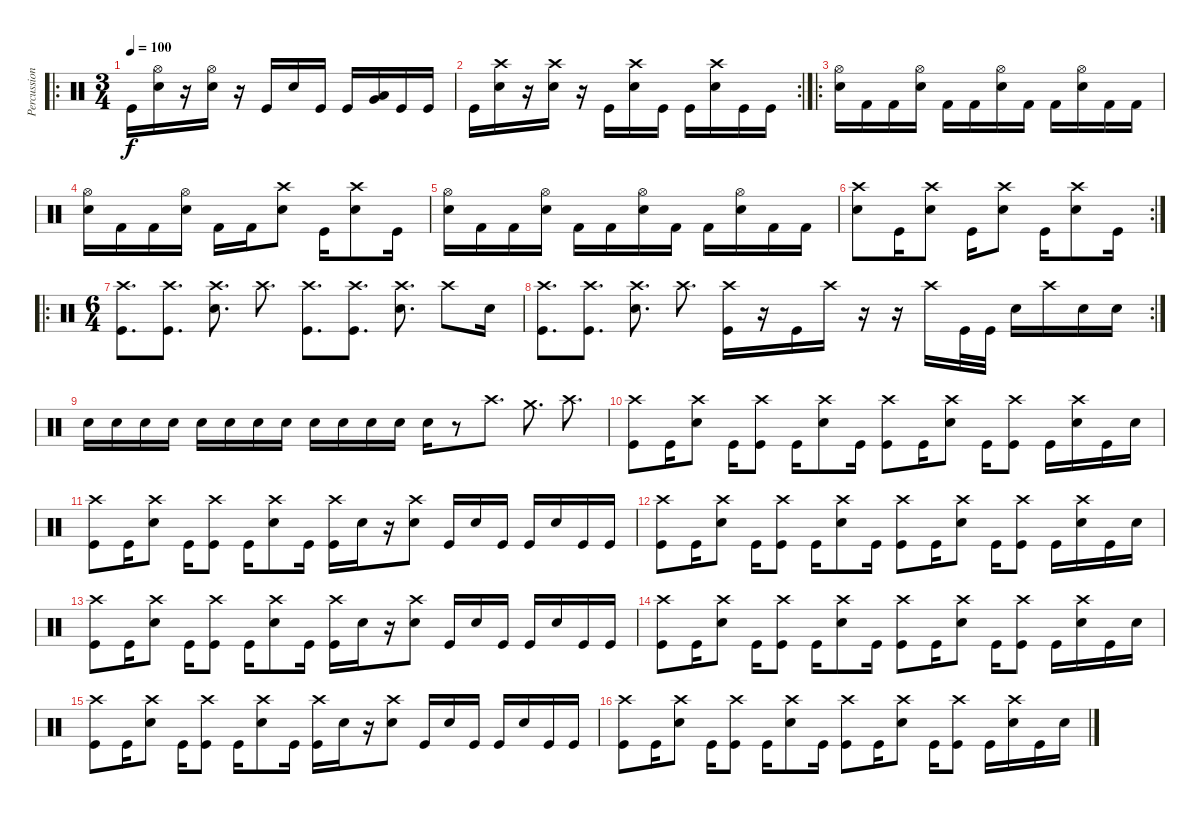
\track ("Percussion" "Percussion") {instrument percussion}
\staff {score}
\articulation defaults
\ro
\ts (3 4)
\tempo 100
\clef neutral
\ks c "Kick (hit)".16{dy f}
("Hi-Hat (open)" "Snare (hit) 2").16 r.16{volume 0} ("Hi-Hat (open)" "Snare (hit) 2").16{volume 12} r.16{volume 0} "Kick (hit)".16{volume 12} "Snare (hit) 2".16 "Kick (hit)".16 "Kick (hit)".16 ("Very Low Tom (hit)" "Low Floor Tom (hit)").16 "Kick (hit)".16 "Kick (hit)".16 |
\rc 2 "Kick (hit)".16
("Crash high (hit)" "Snare (hit) 2").16 r.16 ("Crash high (hit)" "Snare (hit) 2").16 r.16 "Kick (hit)".16 ("Crash high (hit)" "Snare (hit) 2").16 "Kick (hit)".16 "Kick (hit)".16 ("Crash high (hit)" "Snare (hit) 2").16 "Kick (hit)".16 "Kick (hit)".16 |
\ro
("Hi-Hat (open)" "Snare (hit) 2").16 "Kick (hit) 2".16 "Kick (hit) 2".16 ("Hi-Hat (open)" "Snare (hit) 2").16 "Kick (hit) 2".16 "Kick (hit) 2".16 ("Hi-Hat (open)" "Snare (hit) 2").16 "Kick (hit) 2".16 "Kick (hit) 2".16 ("Hi-Hat (open)" "Snare (hit) 2").16 "Kick (hit) 2".16 "Kick (hit) 2".16 |
("Hi-Hat (open)" "Snare (hit) 2").16 "Kick (hit) 2".16 "Kick (hit) 2".16 ("Hi-Hat (open)" "Snare (hit) 2").16 "Kick (hit) 2".16 "Kick (hit) 2".16 ("Crash high (hit)" "Snare (hit) 2").8 "Kick (hit)".16 ("Crash high (hit)" "Snare (hit) 2").8 "Kick (hit)".16 |
("Hi-Hat (open)" "Snare (hit) 2").16 "Kick (hit) 2".16 "Kick (hit) 2".16 ("Hi-Hat (open)" "Snare (hit) 2").16 "Kick (hit) 2".16 "Kick (hit) 2".16 ("Hi-Hat (open)" "Snare (hit) 2").16 "Kick (hit) 2".16 "Kick (hit) 2".16 ("Hi-Hat (open)" "Snare (hit) 2").16 "Kick (hit) 2".16 "Kick (hit) 2".16 |
\rc 2
("Crash high (hit)" "Snare (hit) 2").8 "Kick (hit)".16 ("Crash high (hit)" "Snare (hit) 2").8 "Kick (hit)".16 ("Crash high (hit)" "Snare (hit) 2").8 "Kick (hit)".16 ("Crash high (hit)" "Snare (hit) 2").8 "Kick (hit)".16 |
\ro
\ts (6 4)
("Crash high (hit)" "Kick (hit)").8{d} ("Crash high (hit)" "Kick (hit)").8{d} ("Crash high (hit)" "Snare (hit) 2").8{d} "Crash high (hit)".8{d} ("Crash high (hit)" "Kick (hit)").8{d} ("Crash high (hit)" "Kick (hit)").8{d} ("Crash high (hit)" "Snare (hit) 2").8{d} "Crash high (hit)".8 "Snare (hit) 2".16 |
\rc 2
("Crash high (hit)" "Kick (hit)").8{d} ("Crash high (hit)" "Kick (hit)").8{d} ("Crash high (hit)" "Snare (hit) 2").8{d} "Crash high (hit)".8{d} ("Crash high (hit)" "Kick (hit)").16 r.16 "Kick (hit)".16 "Crash high (hit)".16 r.16 r.16 "Crash high (hit)".16 "Kick (hit)".32 "Kick (hit)".32 "Snare (hit) 2".16 "Crash high (hit)".16 "Snare (hit) 2".16 "Snare (hit) 2".16 |
"Snare (hit) 2".16 "Snare (hit) 2".16 "Snare (hit) 2".16 "Snare (hit) 2".16 "Snare (hit) 2".16 "Snare (hit) 2".16 "Snare (hit) 2".16 "Snare (hit) 2".16 "Snare (hit) 2".16 "Snare (hit) 2".16 "Snare (hit) 2".16 "Snare (hit) 2".16 "Snare (hit) 2".16 r.8 "Crash high (hit)".8{d} "Crash medium (hit)".8{d} "Crash high (hit)".8{d} |
("Crash high (hit)" "Kick (hit)").8 "Kick (hit)".16 ("Crash high (hit)" "Snare (hit) 2").8 "Kick (hit)".16 ("Crash high (hit)" "Kick (hit)").8 "Kick (hit)".16 ("Crash high (hit)" "Snare (hit) 2").8 "Kick (hit)".16 ("Crash high (hit)" "Kick (hit)").8 "Kick (hit)".16 ("Crash high (hit)" "Snare (hit) 2").8 "Kick (hit)".16 ("Crash high (hit)" "Kick (hit)").8 "Kick (hit)".16 ("Crash high (hit)" "Snare (hit) 2").16 "Kick (hit)".16 "Snare (hit) 2".16 |
("Crash high (hit)" "Kick (hit)").8 "Kick (hit)".16 ("Crash high (hit)" "Snare (hit) 2").8 "Kick (hit)".16 ("Crash high (hit)" "Kick (hit)").8 "Kick (hit)".16 ("Crash high (hit)" "Snare (hit) 2").8 "Kick (hit)".16 ("Crash high (hit)" "Kick (hit)").16 "Snare (hit) 2".16 r.16 ("Crash high (hit)" "Snare (hit) 2").8 "Kick (hit)".16 "Snare (hit) 2".16 "Kick (hit)".16 "Kick (hit)".16 "Snare (hit) 2".16 "Kick (hit)".16 "Kick (hit)".16 |
("Crash high (hit)" "Kick (hit)").8 "Kick (hit)".16 ("Crash high (hit)" "Snare (hit) 2").8 "Kick (hit)".16 ("Crash high (hit)" "Kick (hit)").8 "Kick (hit)".16 ("Crash high (hit)" "Snare (hit) 2").8 "Kick (hit)".16 ("Crash high (hit)" "Kick (hit)").8 "Kick (hit)".16 ("Crash high (hit)" "Snare (hit) 2").8 "Kick (hit)".16 ("Crash high (hit)" "Kick (hit)").8 "Kick (hit)".16 ("Crash high (hit)" "Snare (hit) 2").16 "Kick (hit)".16 "Snare (hit) 2".16 |
("Crash high (hit)" "Kick (hit)").8 "Kick (hit)".16 ("Crash high (hit)" "Snare (hit) 2").8 "Kick (hit)".16 ("Crash high (hit)" "Kick (hit)").8 "Kick (hit)".16 ("Crash high (hit)" "Snare (hit) 2").8 "Kick (hit)".16 ("Crash high (hit)" "Kick (hit)").16 "Snare (hit) 2".16 r.16 ("Crash high (hit)" "Snare (hit) 2").8 "Kick (hit)".16 "Snare (hit) 2".16 "Kick (hit)".16 "Kick (hit)".16 "Snare (hit) 2".16 "Kick (hit)".16 "Kick (hit)".16 |
("Crash high (hit)" "Kick (hit)").8 "Kick (hit)".16 ("Crash high (hit)" "Snare (hit) 2").8 "Kick (hit)".16 ("Crash high (hit)" "Kick (hit)").8 "Kick (hit)".16 ("Crash high (hit)" "Snare (hit) 2").8 "Kick (hit)".16 ("Crash high (hit)" "Kick (hit)").8 "Kick (hit)".16 ("Crash high (hit)" "Snare (hit) 2").8 "Kick (hit)".16 ("Crash high (hit)" "Kick (hit)").8 "Kick (hit)".16 ("Crash high (hit)" "Snare (hit) 2").16 "Kick (hit)".16 "Snare (hit) 2".16 |
("Crash high (hit)" "Kick (hit)").8 "Kick (hit)".16 ("Crash high (hit)" "Snare (hit) 2").8 "Kick (hit)".16 ("Crash high (hit)" "Kick (hit)").8 "Kick (hit)".16 ("Crash high (hit)" "Snare (hit) 2").8 "Kick (hit)".16 ("Crash high (hit)" "Kick (hit)").16 "Snare (hit) 2".16 r.16 ("Crash high (hit)" "Snare (hit) 2").8 "Kick (hit)".16 "Snare (hit) 2".16 "Kick (hit)".16 "Kick (hit)".16 "Snare (hit) 2".16 "Kick (hit)".16 "Kick (hit)".16 |
("Crash high (hit)" "Kick (hit)").8 "Kick (hit)".16 ("Crash high (hit)" "Snare (hit) 2").8 "Kick (hit)".16 ("Crash high (hit)" "Kick (hit)").8 "Kick (hit)".16 ("Crash high (hit)" "Snare (hit) 2").8 "Kick (hit)".16 ("Crash high (hit)" "Kick (hit)").8 "Kick (hit)".16 ("Crash high (hit)" "Snare (hit) 2").8 "Kick (hit)".16 ("Crash high (hit)" "Kick (hit)").8 "Kick (hit)".16 ("Crash high (hit)" "Snare (hit) 2").16 "Kick (hit)".16 "Snare (hit) 2".16
